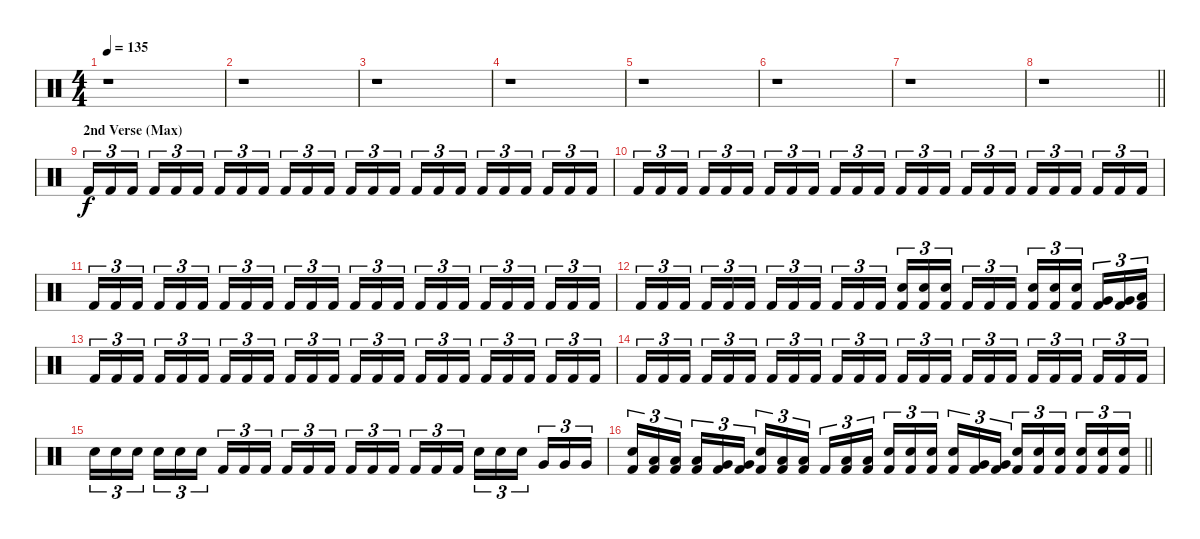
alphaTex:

\track "" {instrument percussion}
\staff {score}
\articulation defaults
\ts (4 4)
\tempo 135
\clef neutral
\ks c
r.1{dy f} |
r.1 |
r.1 |
r.1 |
r.1 |
r.1 |
r.1 |
\barLineRight lightlight
r.1 |
\section ("" "2nd Verse (Max)")
"Kick (hit) 2".16{tu (3 2)} "Kick (hit) 2".16{tu (3 2)} "Kick (hit) 2".16{tu (3 2) beam splitsecondary} "Kick (hit) 2".16{tu (3 2)} "Kick (hit) 2".16{tu (3 2)} "Kick (hit) 2".16{tu (3 2)} "Kick (hit) 2".16{tu (3 2)} "Kick (hit) 2".16{tu (3 2)} "Kick (hit) 2".16{tu (3 2) beam splitsecondary} "Kick (hit) 2".16{tu (3 2)} "Kick (hit) 2".16{tu (3 2)} "Kick (hit) 2".16{tu (3 2)} "Kick (hit) 2".16{tu (3 2)} "Kick (hit) 2".16{tu (3 2)} "Kick (hit) 2".16{tu (3 2) beam splitsecondary} "Kick (hit) 2".16{tu (3 2)} "Kick (hit) 2".16{tu (3 2)} "Kick (hit) 2".16{tu (3 2)} "Kick (hit) 2".16{tu (3 2)} "Kick (hit) 2".16{tu (3 2)} "Kick (hit) 2".16{tu (3 2) beam splitsecondary} "Kick (hit) 2".16{tu (3 2)} "Kick (hit) 2".16{tu (3 2)} "Kick (hit) 2".16{tu (3 2)} |
"Kick (hit) 2".16{tu (3 2)} "Kick (hit) 2".16{tu (3 2)} "Kick (hit) 2".16{tu (3 2) beam splitsecondary} "Kick (hit) 2".16{tu (3 2)} "Kick (hit) 2".16{tu (3 2)} "Kick (hit) 2".16{tu (3 2)} "Kick (hit) 2".16{tu (3 2)} "Kick (hit) 2".16{tu (3 2)} "Kick (hit) 2".16{tu (3 2) beam splitsecondary} "Kick (hit) 2".16{tu (3 2)} "Kick (hit) 2".16{tu (3 2)} "Kick (hit) 2".16{tu (3 2)} "Kick (hit) 2".16{tu (3 2)} "Kick (hit) 2".16{tu (3 2)} "Kick (hit) 2".16{tu (3 2) beam splitsecondary} "Kick (hit) 2".16{tu (3 2)} "Kick (hit) 2".16{tu (3 2)} "Kick (hit) 2".16{tu (3 2)} "Kick (hit) 2".16{tu (3 2)} "Kick (hit) 2".16{tu (3 2)} "Kick (hit) 2".16{tu (3 2) beam splitsecondary} "Kick (hit) 2".16{tu (3 2)} "Kick (hit) 2".16{tu (3 2)} "Kick (hit) 2".16{tu (3 2)} |
"Kick (hit) 2".16{tu (3 2)} "Kick (hit) 2".16{tu (3 2)} "Kick (hit) 2".16{tu (3 2) beam splitsecondary} "Kick (hit) 2".16{tu (3 2)} "Kick (hit) 2".16{tu (3 2)} "Kick (hit) 2".16{tu (3 2)} "Kick (hit) 2".16{tu (3 2)} "Kick (hit) 2".16{tu (3 2)} "Kick (hit) 2".16{tu (3 2) beam splitsecondary} "Kick (hit) 2".16{tu (3 2)} "Kick (hit) 2".16{tu (3 2)} "Kick (hit) 2".16{tu (3 2)} "Kick (hit) 2".16{tu (3 2)} "Kick (hit) 2".16{tu (3 2)} "Kick (hit) 2".16{tu (3 2) beam splitsecondary} "Kick (hit) 2".16{tu (3 2)} "Kick (hit) 2".16{tu (3 2)} "Kick (hit) 2".16{tu (3 2)} "Kick (hit) 2".16{tu (3 2)} "Kick (hit) 2".16{tu (3 2)} "Kick (hit) 2".16{tu (3 2) beam splitsecondary} "Kick (hit) 2".16{tu (3 2)} "Kick (hit) 2".16{tu (3 2)} "Kick (hit) 2".16{tu (3 2)} |
"Kick (hit) 2".16{tu (3 2)} "Kick (hit) 2".16{tu (3 2)} "Kick (hit) 2".16{tu (3 2) beam splitsecondary} "Kick (hit) 2".16{tu (3 2)} "Kick (hit) 2".16{tu (3 2)} "Kick (hit) 2".16{tu (3 2)} "Kick (hit) 2".16{tu (3 2)} "Kick (hit) 2".16{tu (3 2)} "Kick (hit) 2".16{tu (3 2) beam splitsecondary} "Kick (hit) 2".16{tu (3 2)} "Kick (hit) 2".16{tu (3 2)} "Kick (hit) 2".16{tu (3 2)} ("Snare (hit) 2" "Kick (hit) 2").16{tu (3 2)} ("Snare (hit) 2" "Kick (hit) 2").16{tu (3 2)} ("Snare (hit) 2" "Kick (hit) 2").16{tu (3 2) beam splitsecondary} "Kick (hit) 2".16{tu (3 2)} "Kick (hit) 2".16{tu (3 2)} "Kick (hit) 2".16{tu (3 2)} ("Snare (hit) 2" "Kick (hit) 2").16{tu (3 2)} ("Snare (hit) 2" "Kick (hit) 2").16{tu (3 2)} ("Snare (hit) 2" "Kick (hit) 2").16{tu (3 2) beam splitsecondary} ("Very Low Tom (hit)" "Kick (hit) 2").16{tu (3 2)} ("Very Low Tom (hit)" "Kick (hit) 2").16{tu (3 2)} ("Low Floor Tom (hit)" "Kick (hit) 2").16{tu (3 2)} |
"Kick (hit) 2".16{tu (3 2)} "Kick (hit) 2".16{tu (3 2)} "Kick (hit) 2".16{tu (3 2) beam splitsecondary} "Kick (hit) 2".16{tu (3 2)} "Kick (hit) 2".16{tu (3 2)} "Kick (hit) 2".16{tu (3 2)} "Kick (hit) 2".16{tu (3 2)} "Kick (hit) 2".16{tu (3 2)} "Kick (hit) 2".16{tu (3 2) beam splitsecondary} "Kick (hit) 2".16{tu (3 2)} "Kick (hit) 2".16{tu (3 2)} "Kick (hit) 2".16{tu (3 2)} "Kick (hit) 2".16{tu (3 2)} "Kick (hit) 2".16{tu (3 2)} "Kick (hit) 2".16{tu (3 2) beam splitsecondary} "Kick (hit) 2".16{tu (3 2)} "Kick (hit) 2".16{tu (3 2)} "Kick (hit) 2".16{tu (3 2)} "Kick (hit) 2".16{tu (3 2)} "Kick (hit) 2".16{tu (3 2)} "Kick (hit) 2".16{tu (3 2) beam splitsecondary} "Kick (hit) 2".16{tu (3 2)} "Kick (hit) 2".16{tu (3 2)} "Kick (hit) 2".16{tu (3 2)} |
"Kick (hit) 2".16{tu (3 2)} "Kick (hit) 2".16{tu (3 2)} "Kick (hit) 2".16{tu (3 2) beam splitsecondary} "Kick (hit) 2".16{tu (3 2)} "Kick (hit) 2".16{tu (3 2)} "Kick (hit) 2".16{tu (3 2)} "Kick (hit) 2".16{tu (3 2)} "Kick (hit) 2".16{tu (3 2)} "Kick (hit) 2".16{tu (3 2) beam splitsecondary} "Kick (hit) 2".16{tu (3 2)} "Kick (hit) 2".16{tu (3 2)} "Kick (hit) 2".16{tu (3 2)} "Kick (hit) 2".16{tu (3 2)} "Kick (hit) 2".16{tu (3 2)} "Kick (hit) 2".16{tu (3 2) beam splitsecondary} "Kick (hit) 2".16{tu (3 2)} "Kick (hit) 2".16{tu (3 2)} "Kick (hit) 2".16{tu (3 2)} "Kick (hit) 2".16{tu (3 2)} "Kick (hit) 2".16{tu (3 2)} "Kick (hit) 2".16{tu (3 2) beam splitsecondary} "Kick (hit) 2".16{tu (3 2)} "Kick (hit) 2".16{tu (3 2)} "Kick (hit) 2".16{tu (3 2)} |
"Snare (hit) 2".16{tu (3 2)} "Snare (hit) 2".16{tu (3 2)} "Snare (hit) 2".16{tu (3 2) beam splitsecondary} "Snare (hit) 2".16{tu (3 2)} "Snare (hit) 2".16{tu (3 2)} "Snare (hit) 2".16{tu (3 2)} "Kick (hit) 2".16{tu (3 2)} "Kick (hit) 2".16{tu (3 2)} "Kick (hit) 2".16{tu (3 2) beam splitsecondary} "Kick (hit) 2".16{tu (3 2)} "Kick (hit) 2".16{tu (3 2)} "Kick (hit) 2".16{tu (3 2)} "Kick (hit) 2".16{tu (3 2)} "Kick (hit) 2".16{tu (3 2)} "Kick (hit) 2".16{tu (3 2) beam splitsecondary} "Kick (hit) 2".16{tu (3 2)} "Kick (hit) 2".16{tu (3 2)} "Kick (hit) 2".16{tu (3 2)} "Snare (hit) 2".16{tu (3 2)} "Snare (hit) 2".16{tu (3 2)} "Snare (hit) 2".16{tu (3 2) beam splitsecondary} "Very Low Tom (hit)".16{tu (3 2)} "Very Low Tom (hit)".16{tu (3 2)} "Very Low Tom (hit)".16{tu (3 2)} |
\barLineRight lightlight
("Snare (hit) 2" "Kick (hit) 2").16{tu (3 2)} ("Low Tom (hit)" "Kick (hit) 2").16{tu (3 2)} ("Low Tom (hit)" "Kick (hit) 2").16{tu (3 2) beam splitsecondary} ("Low Tom (hit)" "Kick (hit) 2").16{tu (3 2)} ("Very Low Tom (hit)" "Kick (hit) 2").16{tu (3 2)} ("Very Low Tom (hit)" "Kick (hit) 2").16{tu (3 2)} ("Snare (hit) 2" "Kick (hit) 2").16{tu (3 2)} ("Low Floor Tom (hit)" "Kick (hit) 2").16{tu (3 2)} ("Low Floor Tom (hit)" "Kick (hit) 2").16{tu (3 2) beam splitsecondary} "Kick (hit) 2".16{tu (3 2)} ("Low Floor Tom (hit)" "Kick (hit) 2").16{tu (3 2)} ("Low Floor Tom (hit)" "Kick (hit) 2").16{tu (3 2)} ("Snare (hit) 2" "Kick (hit) 2").16{tu (3 2)} ("Snare (hit) 2" "Kick (hit) 2").16{tu (3 2)} ("Snare (hit) 2" "Kick (hit) 2").16{tu (3 2) beam splitsecondary} ("Snare (hit) 2" "Kick (hit) 2").16{tu (3 2)} ("Very Low Tom (hit)" "Kick (hit) 2").16{tu (3 2)} ("Very Low Tom (hit)" "Kick (hit) 2").16{tu (3 2)} ("Snare (hit) 2" "Kick (hit) 2").16{tu (3 2)} ("Snare (hit) 2" "Kick (hit) 2").16{tu (3 2)} ("Snare (hit) 2" "Kick (hit) 2").16{tu (3 2) beam splitsecondary} ("Snare (hit) 2" "Kick (hit) 2").16{tu (3 2)} ("Snare (hit) 2" "Kick (hit) 2").16{tu (3 2)} ("Snare (hit) 2" "Kick (hit) 2").16{tu (3 2)}
